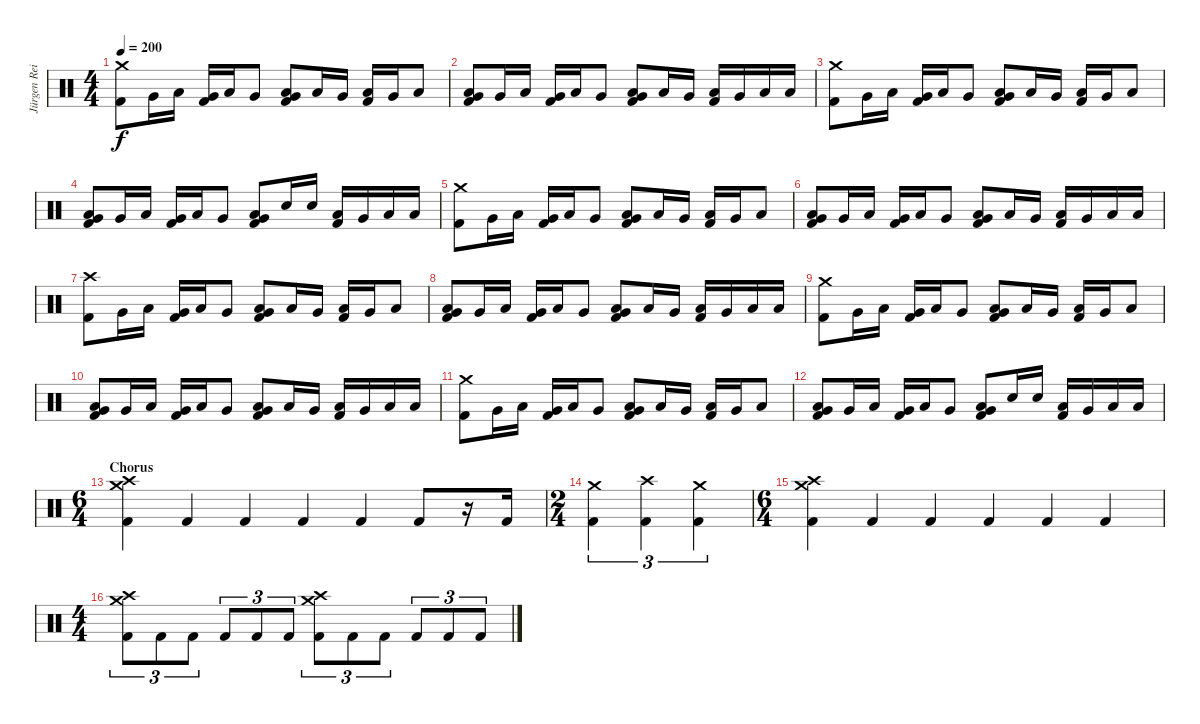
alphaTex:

\track ("Jürgen Reil" "Jürgen Rei") {instrument percussion}
\staff {score}
\articulation defaults
\ts (4 4)
\tempo 200
\clef neutral
\ks c
("Crash medium (hit)" "Kick (hit) 2").8{dy f} "Very Low Tom (hit)".16 "Low Tom (hit)".16 ("Very Low Tom (hit)" "Kick (hit) 2").16 "Low Tom (hit)".16 "Very Low Tom (hit)".8 ("Low Tom (hit)" "Very Low Tom (hit)" "Kick (hit) 2").8 "Low Tom (hit)".16 "Very Low Tom (hit)".16 ("Low Tom (hit)" "Kick (hit) 2").16 "Very Low Tom (hit)".16 "Low Tom (hit)".8 |
("Low Tom (hit)" "Very Low Tom (hit)" "Kick (hit) 2").8 "Very Low Tom (hit)".16 "Low Tom (hit)".16 ("Very Low Tom (hit)" "Kick (hit) 2").16 "Low Tom (hit)".16 "Very Low Tom (hit)".8 ("Low Tom (hit)" "Very Low Tom (hit)" "Kick (hit) 2").8 "Low Tom (hit)".16 "Very Low Tom (hit)".16 ("Low Tom (hit)" "Kick (hit) 2").16 "Very Low Tom (hit)".16 "Low Tom (hit)".16 "Low Tom (hit)".16 |
("Crash medium (hit)" "Kick (hit) 2").8 "Very Low Tom (hit)".16 "Low Tom (hit)".16 ("Very Low Tom (hit)" "Kick (hit) 2").16 "Low Tom (hit)".16 "Very Low Tom (hit)".8 ("Low Tom (hit)" "Very Low Tom (hit)" "Kick (hit) 2").8 "Low Tom (hit)".16 "Very Low Tom (hit)".16 ("Low Tom (hit)" "Kick (hit) 2").16 "Very Low Tom (hit)".16 "Low Tom (hit)".8 |
("Low Tom (hit)" "Very Low Tom (hit)" "Kick (hit) 2").8 "Very Low Tom (hit)".16 "Low Tom (hit)".16 ("Very Low Tom (hit)" "Kick (hit) 2").16 "Low Tom (hit)".16 "Very Low Tom (hit)".8 ("Low Tom (hit)" "Very Low Tom (hit)" "Kick (hit) 2").8 "Electric Snare (hit)".16 "Electric Snare (hit)".16 ("Low Tom (hit)" "Kick (hit) 2").16 "Very Low Tom (hit)".16 "Low Floor Tom (hit)".16 "Low Floor Tom (hit)".16 |
("Crash medium (hit)" "Kick (hit) 2").8 "Very Low Tom (hit)".16 "Low Tom (hit)".16 ("Very Low Tom (hit)" "Kick (hit) 2").16 "Low Tom (hit)".16 "Very Low Tom (hit)".8 ("Low Tom (hit)" "Very Low Tom (hit)" "Kick (hit) 2").8 "Low Tom (hit)".16 "Very Low Tom (hit)".16 ("Low Tom (hit)" "Kick (hit) 2").16 "Very Low Tom (hit)".16 "Low Tom (hit)".8 |
("Low Tom (hit)" "Very Low Tom (hit)" "Kick (hit) 2").8 "Very Low Tom (hit)".16 "Low Tom (hit)".16 ("Very Low Tom (hit)" "Kick (hit) 2").16 "Low Tom (hit)".16 "Very Low Tom (hit)".8 ("Low Tom (hit)" "Very Low Tom (hit)" "Kick (hit) 2").8 "Low Tom (hit)".16 "Very Low Tom (hit)".16 ("Low Tom (hit)" "Kick (hit) 2").16 "Very Low Tom (hit)".16 "Low Tom (hit)".16 "Low Tom (hit)".16 |
("Crash high (hit)" "Kick (hit) 2").8 "Very Low Tom (hit)".16 "Low Tom (hit)".16 ("Very Low Tom (hit)" "Kick (hit) 2").16 "Low Tom (hit)".16 "Very Low Tom (hit)".8 ("Low Tom (hit)" "Very Low Tom (hit)" "Kick (hit) 2").8 "Low Tom (hit)".16 "Very Low Tom (hit)".16 ("Low Tom (hit)" "Kick (hit) 2").16 "Very Low Tom (hit)".16 "Low Tom (hit)".8 |
("Low Tom (hit)" "Very Low Tom (hit)" "Kick (hit) 2").8 "Very Low Tom (hit)".16 "Low Tom (hit)".16 ("Very Low Tom (hit)" "Kick (hit) 2").16 "Low Tom (hit)".16 "Very Low Tom (hit)".8 ("Low Tom (hit)" "Very Low Tom (hit)" "Kick (hit) 2").8 "Low Tom (hit)".16 "Very Low Tom (hit)".16 ("Low Tom (hit)" "Kick (hit) 2").16 "Very Low Tom (hit)".16 "Low Floor Tom (hit)".16 "Low Floor Tom (hit)".16 |
("Crash medium (hit)" "Kick (hit) 2").8 "Very Low Tom (hit)".16 "Low Tom (hit)".16 ("Very Low Tom (hit)" "Kick (hit) 2").16 "Low Tom (hit)".16 "Very Low Tom (hit)".8 ("Low Tom (hit)" "Very Low Tom (hit)" "Kick (hit) 2").8 "Low Tom (hit)".16 "Very Low Tom (hit)".16 ("Low Tom (hit)" "Kick (hit) 2").16 "Very Low Tom (hit)".16 "Low Tom (hit)".8 |
("Low Tom (hit)" "Very Low Tom (hit)" "Kick (hit) 2").8 "Very Low Tom (hit)".16 "Low Tom (hit)".16 ("Very Low Tom (hit)" "Kick (hit) 2").16 "Low Tom (hit)".16 "Very Low Tom (hit)".8 ("Low Tom (hit)" "Very Low Tom (hit)" "Kick (hit) 2").8 "Low Tom (hit)".16 "Very Low Tom (hit)".16 ("Low Tom (hit)" "Kick (hit) 2").16 "Very Low Tom (hit)".16 "Low Tom (hit)".16 "Low Tom (hit)".16 |
("Crash medium (hit)" "Kick (hit) 2").8 "Very Low Tom (hit)".16 "Low Tom (hit)".16 ("Very Low Tom (hit)" "Kick (hit) 2").16 "Low Tom (hit)".16 "Very Low Tom (hit)".8 ("Low Tom (hit)" "Very Low Tom (hit)" "Kick (hit) 2").8 "Low Tom (hit)".16 "Very Low Tom (hit)".16 ("Low Tom (hit)" "Kick (hit) 2").16 "Very Low Tom (hit)".16 "Low Tom (hit)".8 |
("Low Tom (hit)" "Very Low Tom (hit)" "Kick (hit) 2").8 "Very Low Tom (hit)".16 "Low Tom (hit)".16 ("Very Low Tom (hit)" "Kick (hit) 2").16 "Low Tom (hit)".16 "Very Low Tom (hit)".8 ("Low Tom (hit)" "Very Low Tom (hit)" "Kick (hit) 2").8 "Electric Snare (hit)".16 "Electric Snare (hit)".16 ("Low Tom (hit)" "Kick (hit) 2").16 "Very Low Tom (hit)".16 "Low Floor Tom (hit)".16 "Low Floor Tom (hit)".16 |
\ts (6 4)
\section ("" "Chorus")
("Crash medium (hit)" "Crash high (hit)" "Kick (hit) 2").4 "Kick (hit) 2".4 "Kick (hit) 2".4 "Kick (hit) 2".4 "Kick (hit) 2".4 "Kick (hit) 2".8 r.16 "Kick (hit) 2".16 |
\ts (2 4)
("Crash medium (hit)" "Kick (hit) 2").4{tu (3 2)} ("Crash high (hit)" "Kick (hit) 2").4{tu (3 2)} ("Crash medium (hit)" "Kick (hit) 2").4{tu (3 2)} |
\ts (6 4)
("Crash medium (hit)" "Crash high (hit)" "Kick (hit) 2").4 "Kick (hit) 2".4 "Kick (hit) 2".4 "Kick (hit) 2".4 "Kick (hit) 2".4 "Kick (hit) 2".4 |
\ts (4 4)
("Crash medium (hit)" "Crash high (hit)" "Kick (hit) 2").8{tu (3 2)} "Kick (hit) 2".8{tu (3 2)} "Kick (hit) 2".8{tu (3 2)} "Kick (hit) 2".8{tu (3 2)} "Kick (hit) 2".8{tu (3 2)} "Kick (hit) 2".8{tu (3 2)} ("Crash medium (hit)" "Crash high (hit)" "Kick (hit) 2").8{tu (3 2)} "Kick (hit) 2".8{tu (3 2)} "Kick (hit) 2".8{tu (3 2)} "Kick (hit) 2".8{tu (3 2)} "Kick (hit) 2".8{tu (3 2)} "Kick (hit) 2".8{tu (3 2)}
